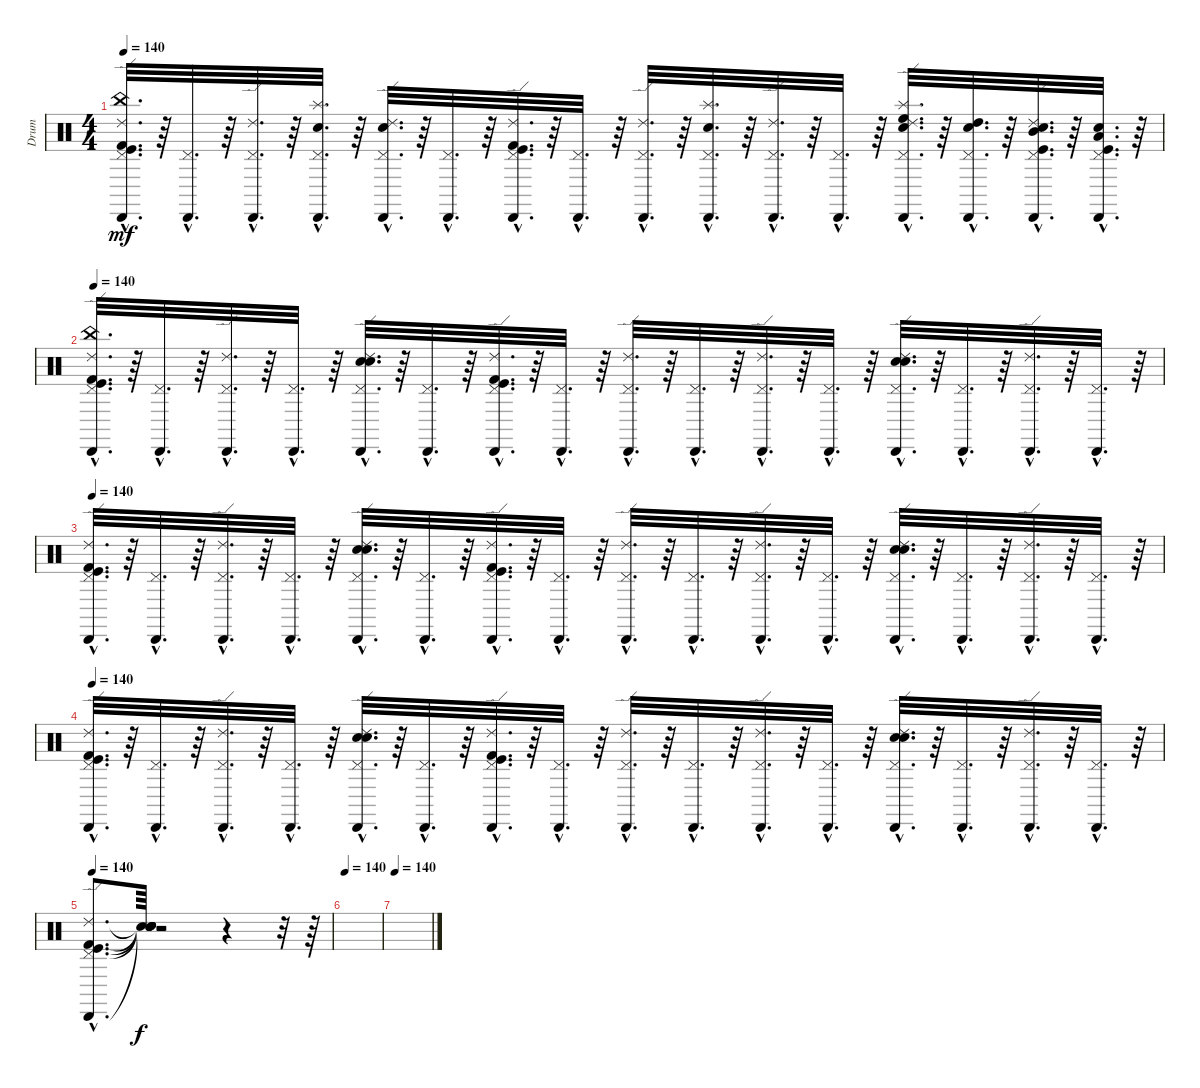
\track ("Drum" "Drum") {instrument percussion}
\staff {score}
\articulation defaults
\ts (4 4)
\tempo 140
\clef neutral
\ks c
("Pedal Hi-Hat (hit)"{hac} "Kick (hit)"{hac} "Kick (hit) 2"{hac} "Ride (edge) 2"{hac} "Cabasa (hit)"{hac} "China (hit)"{hac}).32{d dy mf} r.64 ("Cabasa (hit)"{hac} "Pedal Hi-Hat (hit)"{hac}).32{d} r.64 ("Pedal Hi-Hat (hit)"{hac} "Cabasa (hit)"{hac} "Ride (edge) 2"{hac}).32{d} r.64 ("Cabasa (hit)"{hac} "Pedal Hi-Hat (hit)"{hac} "Snare (hit) 2"{hac} "Splash (hit)"{hac}).32{d} r.64 ("Pedal Hi-Hat (hit)"{hac} "Cabasa (hit)"{hac} "Ride (edge) 2"{hac} "Snare (hit) 2"{hac}).32{d} r.64 ("Pedal Hi-Hat (hit)"{hac} "Cabasa (hit)"{hac}).32{d} r.64 ("Pedal Hi-Hat (hit)"{hac} "Kick (hit) 2"{hac} "Kick (hit)"{hac} "Cabasa (hit)"{hac} "Ride (edge) 2"{hac}).32{d} r.64 ("Cabasa (hit)"{hac} "Pedal Hi-Hat (hit)"{hac}).32{d} r.64 ("Ride (edge) 2"{hac} "Pedal Hi-Hat (hit)"{hac} "Cabasa (hit)"{hac}).32{d} r.64 ("Cabasa (hit)"{hac} "Pedal Hi-Hat (hit)"{hac} "Snare (hit) 2"{hac} "Splash (hit)"{hac}).32{d} r.64 ("Ride (edge) 2"{hac} "Cabasa (hit)"{hac} "Pedal Hi-Hat (hit)"{hac}).32{d} r.64 ("Cabasa (hit)"{hac} "Pedal Hi-Hat (hit)"{hac}).32{d} r.64 ("Pedal Hi-Hat (hit)"{hac} "Cabasa (hit)"{hac} "Ride (edge) 2"{hac} "Snare (hit) 2"{hac} "Splash (hit)"{hac} "High Floor Tom (hit)"{hac}).32{d} r.64 ("Cabasa (hit)"{hac} "Pedal Hi-Hat (hit)"{hac} "Snare (hit) 2"{hac} "High Tom (hit)"{hac}).32{d} r.64 ("Pedal Hi-Hat (hit)"{hac} "Cabasa (hit)"{hac} "Ride (edge) 2"{hac} "Snare (hit) 2"{hac} "Mid Tom (hit)"{hac} "Kick (hit)"{hac}).32{d} r.64 ("Cabasa (hit)"{hac} "Pedal Hi-Hat (hit)"{hac} "Snare (hit) 2"{hac} "Low Tom (hit)"{hac} "Kick (hit)"{hac}).32{d} r.64 |
\tempo 140
("China (hit)"{hac} "Ride (edge) 2"{hac} "Pedal Hi-Hat (hit)"{hac} "Cabasa (hit)"{hac} "Kick (hit)"{hac} "Kick (hit) 2"{hac}).32{d} r.64 ("Pedal Hi-Hat (hit)"{hac} "Cabasa (hit)"{hac}).32{d} r.64 ("Pedal Hi-Hat (hit)"{hac} "Cabasa (hit)"{hac} "Ride (edge) 2"{hac}).32{d} r.64 ("Pedal Hi-Hat (hit)"{hac} "Cabasa (hit)"{hac}).32{d} r.64 ("Pedal Hi-Hat (hit)"{hac} "Snare (hit) 2"{hac} "Ride (edge) 2"{hac} "Electric Snare (hit)"{hac} "Cabasa (hit)"{hac}).32{d} r.64 ("Cabasa (hit)"{hac} "Pedal Hi-Hat (hit)"{hac}).32{d} r.64 ("Kick (hit)"{hac} "Ride (edge) 2"{hac} "Pedal Hi-Hat (hit)"{hac} "Kick (hit) 2"{hac} "Cabasa (hit)"{hac}).32{d} r.64 ("Cabasa (hit)"{hac} "Pedal Hi-Hat (hit)"{hac}).32{d} r.64 ("Pedal Hi-Hat (hit)"{hac} "Ride (edge) 2"{hac} "Cabasa (hit)"{hac}).32{d} r.64 ("Cabasa (hit)"{hac} "Pedal Hi-Hat (hit)"{hac}).32{d} r.64 ("Ride (edge) 2"{hac} "Pedal Hi-Hat (hit)"{hac} "Cabasa (hit)"{hac}).32{d} r.64 ("Pedal Hi-Hat (hit)"{hac} "Cabasa (hit)"{hac}).32{d} r.64 ("Pedal Hi-Hat (hit)"{hac} "Cabasa (hit)"{hac} "Ride (edge) 2"{hac} "Snare (hit) 2"{hac} "Electric Snare (hit)"{hac}).32{d} r.64 ("Pedal Hi-Hat (hit)"{hac} "Cabasa (hit)"{hac}).32{d} r.64 ("Pedal Hi-Hat (hit)"{hac} "Cabasa (hit)"{hac} "Ride (edge) 2"{hac}).32{d} r.64 ("Pedal Hi-Hat (hit)"{hac} "Cabasa (hit)"{hac}).32{d} r.64 |
\tempo 140
("Cabasa (hit)"{hac} "Kick (hit) 2"{hac} "Pedal Hi-Hat (hit)"{hac} "Kick (hit)"{hac} "Ride (edge) 2"{hac}).32{d} r.64 ("Pedal Hi-Hat (hit)"{hac} "Cabasa (hit)"{hac}).32{d} r.64 ("Ride (edge) 2"{hac} "Pedal Hi-Hat (hit)"{hac} "Cabasa (hit)"{hac}).32{d} r.64 ("Cabasa (hit)"{hac} "Pedal Hi-Hat (hit)"{hac}).32{d} r.64 ("Pedal Hi-Hat (hit)"{hac} "Cabasa (hit)"{hac} "Snare (hit) 2"{hac} "Electric Snare (hit)"{hac} "Ride (edge) 2"{hac}).32{d} r.64 ("Pedal Hi-Hat (hit)"{hac} "Cabasa (hit)"{hac}).32{d} r.64 ("Ride (edge) 2"{hac} "Kick (hit)"{hac} "Kick (hit) 2"{hac} "Pedal Hi-Hat (hit)"{hac} "Cabasa (hit)"{hac}).32{d} r.64 ("Cabasa (hit)"{hac} "Pedal Hi-Hat (hit)"{hac}).32{d} r.64 ("Pedal Hi-Hat (hit)"{hac} "Ride (edge) 2"{hac} "Cabasa (hit)"{hac}).32{d} r.64 ("Cabasa (hit)"{hac} "Pedal Hi-Hat (hit)"{hac}).32{d} r.64 ("Pedal Hi-Hat (hit)"{hac} "Cabasa (hit)"{hac} "Ride (edge) 2"{hac}).32{d} r.64 ("Cabasa (hit)"{hac} "Pedal Hi-Hat (hit)"{hac}).32{d} r.64 ("Pedal Hi-Hat (hit)"{hac} "Electric Snare (hit)"{hac} "Cabasa (hit)"{hac} "Snare (hit) 2"{hac} "Ride (edge) 2"{hac}).32{d} r.64 ("Cabasa (hit)"{hac} "Pedal Hi-Hat (hit)"{hac}).32{d} r.64 ("Cabasa (hit)"{hac} "Pedal Hi-Hat (hit)"{hac} "Ride (edge) 2"{hac}).32{d} r.64 ("Cabasa (hit)"{hac} "Pedal Hi-Hat (hit)"{hac}).32{d} r.64 |
\tempo 140
("Kick (hit) 2"{hac} "Ride (edge) 2"{hac} "Pedal Hi-Hat (hit)"{hac} "Cabasa (hit)"{hac} "Kick (hit)"{hac}).32{d} r.64 ("Cabasa (hit)"{hac} "Pedal Hi-Hat (hit)"{hac}).32{d} r.64 ("Pedal Hi-Hat (hit)"{hac} "Cabasa (hit)"{hac} "Ride (edge) 2"{hac}).32{d} r.64 ("Pedal Hi-Hat (hit)"{hac} "Cabasa (hit)"{hac}).32{d} r.64 ("Ride (edge) 2"{hac} "Snare (hit) 2"{hac} "Pedal Hi-Hat (hit)"{hac} "Cabasa (hit)"{hac} "Electric Snare (hit)"{hac}).32{d} r.64 ("Pedal Hi-Hat (hit)"{hac} "Cabasa (hit)"{hac}).32{d} r.64 ("Ride (edge) 2"{hac} "Kick (hit)"{hac} "Cabasa (hit)"{hac} "Kick (hit) 2"{hac} "Pedal Hi-Hat (hit)"{hac}).32{d} r.64 ("Cabasa (hit)"{hac} "Pedal Hi-Hat (hit)"{hac}).32{d} r.64 ("Cabasa (hit)"{hac} "Pedal Hi-Hat (hit)"{hac} "Ride (edge) 2"{hac}).32{d} r.64 ("Cabasa (hit)"{hac} "Pedal Hi-Hat (hit)"{hac}).32{d} r.64 ("Cabasa (hit)"{hac} "Pedal Hi-Hat (hit)"{hac} "Ride (edge) 2"{hac}).32{d} r.64 ("Pedal Hi-Hat (hit)"{hac} "Cabasa (hit)"{hac}).32{d} r.64 ("Electric Snare (hit)"{hac} "Snare (hit) 2"{hac} "Ride (edge) 2"{hac} "Pedal Hi-Hat (hit)"{hac} "Cabasa (hit)"{hac}).32{d} r.64 ("Pedal Hi-Hat (hit)"{hac} "Cabasa (hit)"{hac}).32{d} r.64 ("Cabasa (hit)"{hac} "Pedal Hi-Hat (hit)"{hac} "Ride (edge) 2"{hac}).32{d} r.64 ("Pedal Hi-Hat (hit)"{hac} "Cabasa (hit)"{hac}).32{d} r.64 |
\tempo 140
("Kick (hit) 2"{hac} "Cabasa (hit)"{hac} "Ride (edge) 2"{hac} "Pedal Hi-Hat (hit)"{hac} "Kick (hit)"{hac}).8{d} ("Snare (hit)"{t} "Snare (hit)"{t} "Snare (hit)"{t} "Snare (hit)"{t} "Snare (hit)"{t}).64{dy f} r.2 r.4 r.32 r.64 |
\tempo 140
|
\tempo 140
